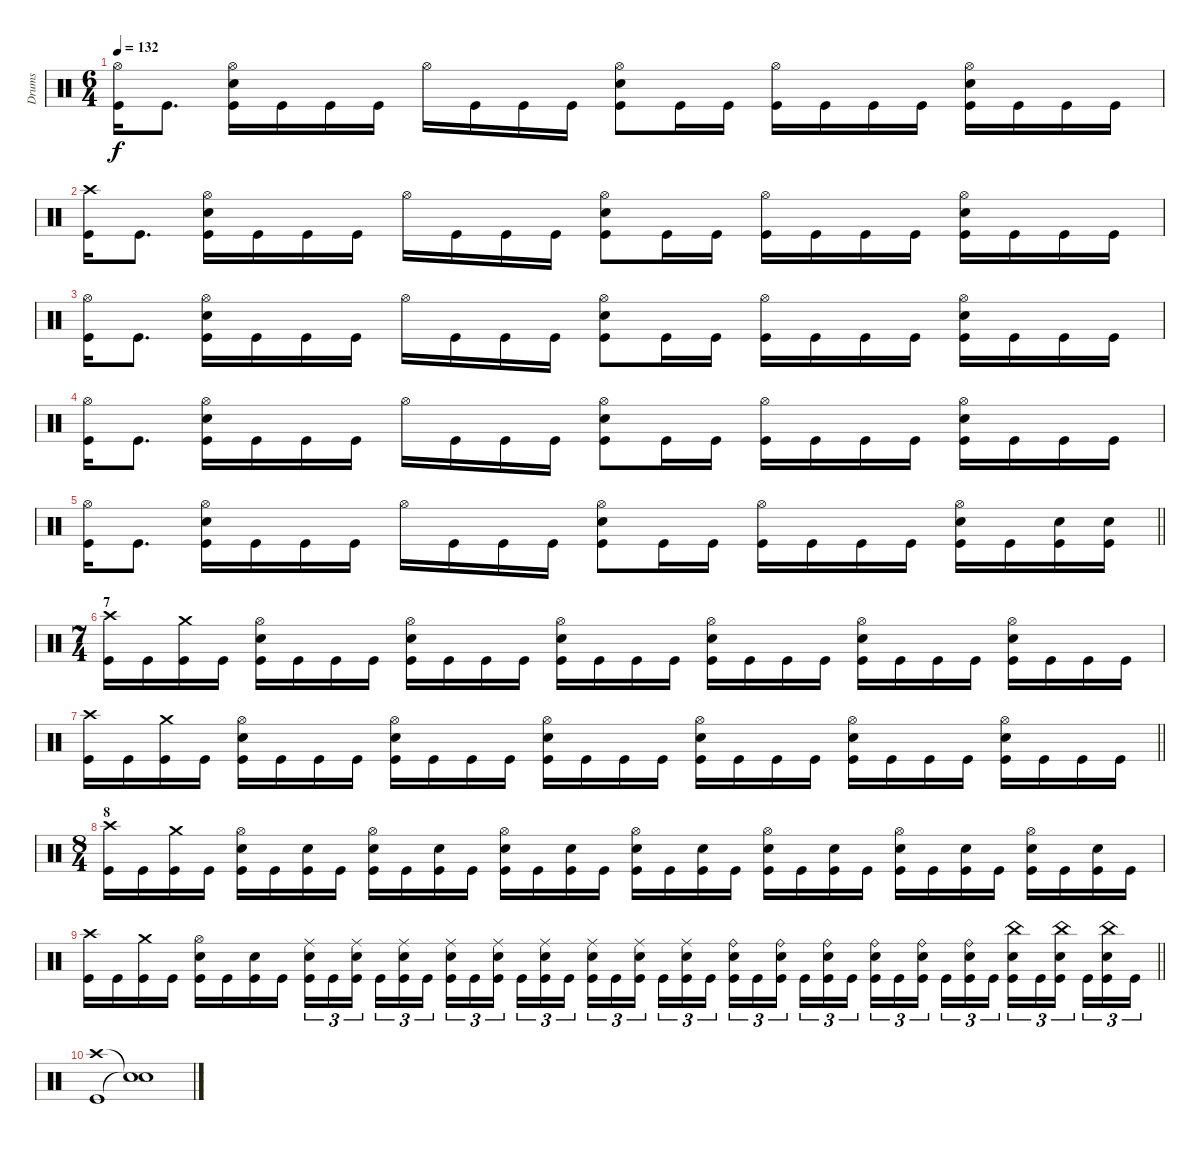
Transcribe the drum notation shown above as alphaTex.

\track ("Drums" "Drums") {instrument percussion}
\staff
\articulation defaults
\ts (6 4)
\tempo 132
\clef neutral
\ks c
("Hi-Hat (open)" "Kick (hit)").16{dy f} "Kick (hit)".8{d} ("Hi-Hat (open)" "Electric Snare (hit)" "Kick (hit)").16 "Kick (hit)".16 "Kick (hit)".16 "Kick (hit)".16 "Hi-Hat (open)".16 "Kick (hit)".16 "Kick (hit)".16 "Kick (hit)".16 ("Hi-Hat (open)" "Electric Snare (hit)" "Kick (hit)").8 "Kick (hit)".16 "Kick (hit)".16 ("Hi-Hat (open)" "Kick (hit)").16 "Kick (hit)".16 "Kick (hit)".16 "Kick (hit)".16 ("Hi-Hat (open)" "Electric Snare (hit)" "Kick (hit)").16 "Kick (hit)".16 "Kick (hit)".16 "Kick (hit)".16 |
("Crash high (hit)" "Kick (hit)").16 "Kick (hit)".8{d} ("Hi-Hat (open)" "Electric Snare (hit)" "Kick (hit)").16 "Kick (hit)".16 "Kick (hit)".16 "Kick (hit)".16 "Hi-Hat (open)".16 "Kick (hit)".16 "Kick (hit)".16 "Kick (hit)".16 ("Hi-Hat (open)" "Electric Snare (hit)" "Kick (hit)").8 "Kick (hit)".16 "Kick (hit)".16 ("Hi-Hat (open)" "Kick (hit)").16 "Kick (hit)".16 "Kick (hit)".16 "Kick (hit)".16 ("Hi-Hat (open)" "Electric Snare (hit)" "Kick (hit)").16 "Kick (hit)".16 "Kick (hit)".16 "Kick (hit)".16 |
("Hi-Hat (open)" "Kick (hit)").16 "Kick (hit)".8{d} ("Hi-Hat (open)" "Electric Snare (hit)" "Kick (hit)").16 "Kick (hit)".16 "Kick (hit)".16 "Kick (hit)".16 "Hi-Hat (open)".16 "Kick (hit)".16 "Kick (hit)".16 "Kick (hit)".16 ("Hi-Hat (open)" "Electric Snare (hit)" "Kick (hit)").8 "Kick (hit)".16 "Kick (hit)".16 ("Hi-Hat (open)" "Kick (hit)").16 "Kick (hit)".16 "Kick (hit)".16 "Kick (hit)".16 ("Hi-Hat (open)" "Electric Snare (hit)" "Kick (hit)").16 "Kick (hit)".16 "Kick (hit)".16 "Kick (hit)".16 |
("Hi-Hat (open)" "Kick (hit)").16 "Kick (hit)".8{d} ("Hi-Hat (open)" "Electric Snare (hit)" "Kick (hit)").16 "Kick (hit)".16 "Kick (hit)".16 "Kick (hit)".16 "Hi-Hat (open)".16 "Kick (hit)".16 "Kick (hit)".16 "Kick (hit)".16 ("Hi-Hat (open)" "Electric Snare (hit)" "Kick (hit)").8 "Kick (hit)".16 "Kick (hit)".16 ("Hi-Hat (open)" "Kick (hit)").16 "Kick (hit)".16 "Kick (hit)".16 "Kick (hit)".16 ("Hi-Hat (open)" "Electric Snare (hit)" "Kick (hit)").16 "Kick (hit)".16 "Kick (hit)".16 "Kick (hit)".16 |
\barLineRight lightlight
("Hi-Hat (open)" "Kick (hit)").16 "Kick (hit)".8{d} ("Hi-Hat (open)" "Electric Snare (hit)" "Kick (hit)").16 "Kick (hit)".16 "Kick (hit)".16 "Kick (hit)".16 "Hi-Hat (open)".16 "Kick (hit)".16 "Kick (hit)".16 "Kick (hit)".16 ("Hi-Hat (open)" "Electric Snare (hit)" "Kick (hit)").8 "Kick (hit)".16 "Kick (hit)".16 ("Hi-Hat (open)" "Kick (hit)").16 "Kick (hit)".16 "Kick (hit)".16 "Kick (hit)".16 ("Hi-Hat (open)" "Electric Snare (hit)" "Kick (hit)").16 "Kick (hit)".16 ("Electric Snare (hit)" "Kick (hit)").16 ("Electric Snare (hit)" "Kick (hit)").16 |
\ts (7 4)
\section ("" "7")
("Crash high (hit)" "Kick (hit)").16 "Kick (hit)".16 ("Crash medium (hit)" "Kick (hit)").16 "Kick (hit)".16 ("Hi-Hat (open)" "Electric Snare (hit)" "Kick (hit)").16 "Kick (hit)".16 "Kick (hit)".16 "Kick (hit)".16 ("Hi-Hat (open)" "Electric Snare (hit)" "Kick (hit)").16 "Kick (hit)".16 "Kick (hit)".16 "Kick (hit)".16 ("Hi-Hat (open)" "Electric Snare (hit)" "Kick (hit)").16 "Kick (hit)".16 "Kick (hit)".16 "Kick (hit)".16 ("Hi-Hat (open)" "Electric Snare (hit)" "Kick (hit)").16 "Kick (hit)".16 "Kick (hit)".16 "Kick (hit)".16 ("Hi-Hat (open)" "Electric Snare (hit)" "Kick (hit)").16 "Kick (hit)".16 "Kick (hit)".16 "Kick (hit)".16 ("Hi-Hat (open)" "Electric Snare (hit)" "Kick (hit)").16 "Kick (hit)".16 "Kick (hit)".16 "Kick (hit)".16 |
\barLineRight lightlight
("Crash high (hit)" "Kick (hit)").16 "Kick (hit)".16 ("Crash medium (hit)" "Kick (hit)").16 "Kick (hit)".16 ("Hi-Hat (open)" "Electric Snare (hit)" "Kick (hit)").16 "Kick (hit)".16 "Kick (hit)".16 "Kick (hit)".16 ("Hi-Hat (open)" "Electric Snare (hit)" "Kick (hit)").16 "Kick (hit)".16 "Kick (hit)".16 "Kick (hit)".16 ("Hi-Hat (open)" "Electric Snare (hit)" "Kick (hit)").16 "Kick (hit)".16 "Kick (hit)".16 "Kick (hit)".16 ("Hi-Hat (open)" "Electric Snare (hit)" "Kick (hit)").16 "Kick (hit)".16 "Kick (hit)".16 "Kick (hit)".16 ("Hi-Hat (open)" "Electric Snare (hit)" "Kick (hit)").16 "Kick (hit)".16 "Kick (hit)".16 "Kick (hit)".16 ("Hi-Hat (open)" "Electric Snare (hit)" "Kick (hit)").16 "Kick (hit)".16 "Kick (hit)".16 "Kick (hit)".16 |
\ts (8 4)
\section ("" "8")
("Crash high (hit)" "Kick (hit)").16 "Kick (hit)".16 ("Crash medium (hit)" "Kick (hit)").16 "Kick (hit)".16 ("Hi-Hat (open)" "Electric Snare (hit)" "Kick (hit)").16 "Kick (hit)".16 ("Electric Snare (hit)" "Kick (hit)").16 "Kick (hit)".16 ("Hi-Hat (open)" "Electric Snare (hit)" "Kick (hit)").16 "Kick (hit)".16 ("Electric Snare (hit)" "Kick (hit)").16 "Kick (hit)".16 ("Hi-Hat (open)" "Electric Snare (hit)" "Kick (hit)").16 "Kick (hit)".16 ("Electric Snare (hit)" "Kick (hit)").16 "Kick (hit)".16 ("Hi-Hat (open)" "Electric Snare (hit)" "Kick (hit)").16 "Kick (hit)".16 ("Electric Snare (hit)" "Kick (hit)").16 "Kick (hit)".16 ("Hi-Hat (open)" "Electric Snare (hit)" "Kick (hit)").16 "Kick (hit)".16 ("Electric Snare (hit)" "Kick (hit)").16 "Kick (hit)".16 ("Hi-Hat (open)" "Electric Snare (hit)" "Kick (hit)").16 "Kick (hit)".16 ("Electric Snare (hit)" "Kick (hit)").16 "Kick (hit)".16 ("Hi-Hat (open)" "Electric Snare (hit)" "Kick (hit)").16 "Kick (hit)".16 ("Electric Snare (hit)" "Kick (hit)").16 "Kick (hit)".16 |
\barLineRight lightlight
("Crash high (hit)" "Kick (hit)").16 "Kick (hit)".16 ("Crash medium (hit)" "Kick (hit)").16 "Kick (hit)".16 ("Hi-Hat (open)" "Electric Snare (hit)" "Kick (hit)").16 "Kick (hit)".16 ("Electric Snare (hit)" "Kick (hit)").16 "Kick (hit)".16 ("Ride (middle)" "Electric Snare (hit)" "Kick (hit)").16{tu (3 2)} "Kick (hit)".16{tu (3 2)} ("Ride (middle)" "Electric Snare (hit)" "Kick (hit)").16{tu (3 2) beam splitsecondary} "Kick (hit)".16{tu (3 2)} ("Ride (middle)" "Electric Snare (hit)" "Kick (hit)").16{tu (3 2)} "Kick (hit)".16{tu (3 2)} ("Ride (middle)" "Electric Snare (hit)" "Kick (hit)").16{tu (3 2)} "Kick (hit)".16{tu (3 2)} ("Ride (middle)" "Electric Snare (hit)" "Kick (hit)").16{tu (3 2) beam splitsecondary} "Kick (hit)".16{tu (3 2)} ("Ride (middle)" "Electric Snare (hit)" "Kick (hit)").16{tu (3 2)} "Kick (hit)".16{tu (3 2)} ("Ride (middle)" "Electric Snare (hit)" "Kick (hit)").16{tu (3 2)} "Kick (hit)".16{tu (3 2)} ("Ride (middle)" "Electric Snare (hit)" "Kick (hit)").16{tu (3 2) beam splitsecondary} "Kick (hit)".16{tu (3 2)} ("Ride (middle)" "Electric Snare (hit)" "Kick (hit)").16{tu (3 2)} "Kick (hit)".16{tu (3 2)} ("Ride (bell)" "Electric Snare (hit)" "Kick (hit)").16{tu (3 2)} "Kick (hit)".16{tu (3 2)} ("Ride (bell)" "Electric Snare (hit)" "Kick (hit)").16{tu (3 2) beam splitsecondary} "Kick (hit)".16{tu (3 2)} ("Ride (bell)" "Electric Snare (hit)" "Kick (hit)").16{tu (3 2)} "Kick (hit)".16{tu (3 2)} ("Ride (bell)" "Electric Snare (hit)" "Kick (hit)").16{tu (3 2)} "Kick (hit)".16{tu (3 2)} ("Ride (bell)" "Electric Snare (hit)" "Kick (hit)").16{tu (3 2) beam splitsecondary} "Kick (hit)".16{tu (3 2)} ("Ride (bell)" "Electric Snare (hit)" "Kick (hit)").16{tu (3 2)} "Kick (hit)".16{tu (3 2)} ("China (hit)" "Electric Snare (hit)" "Kick (hit)").16{tu (3 2)} "Kick (hit)".16{tu (3 2)} ("China (hit)" "Electric Snare (hit)" "Kick (hit)").16{tu (3 2) beam splitsecondary} "Kick (hit)".16{tu (3 2)} ("China (hit)" "Electric Snare (hit)" "Kick (hit)").16{tu (3 2)} "Kick (hit)".16{tu (3 2)} |
("Crash high (hit)" "Kick (hit)").1 ("Snare (hit)"{t} "Snare (hit)"{t}).1
